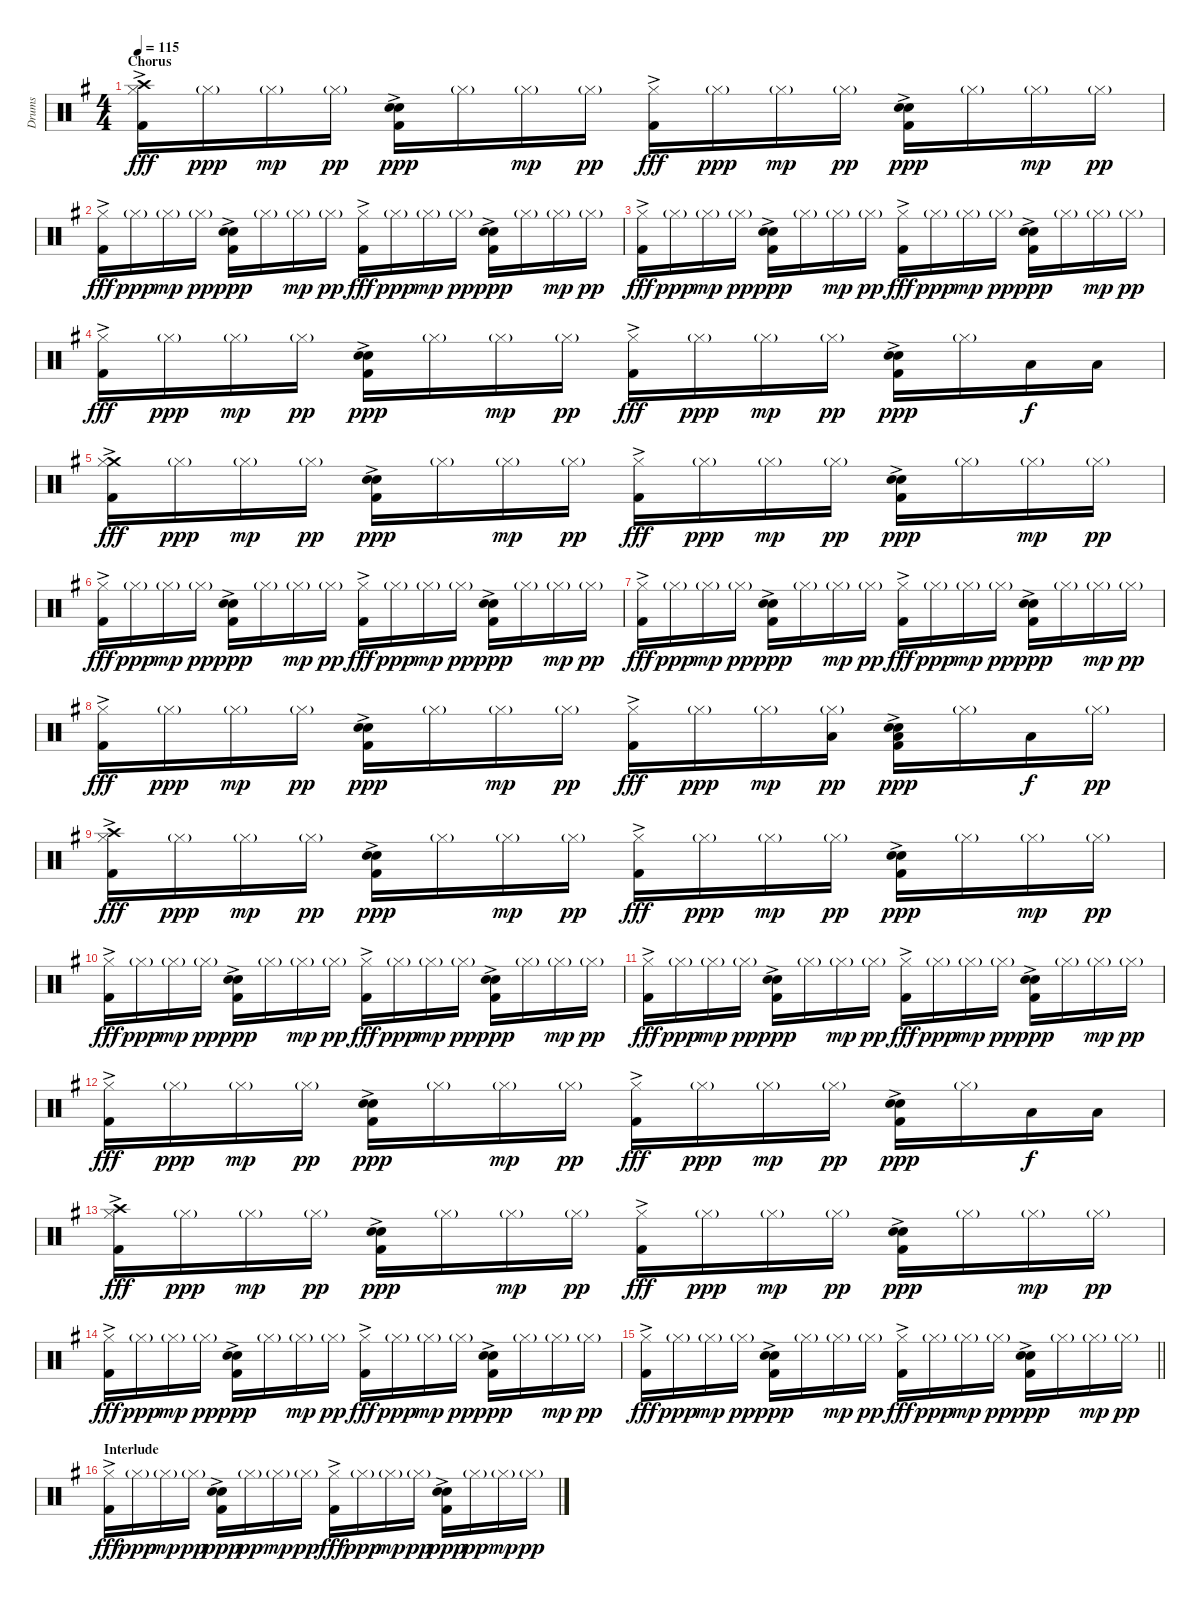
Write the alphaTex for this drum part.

\track ("Drums" "Drums") {instrument percussion}
\staff {score}
\articulation defaults
\ts (4 4)
\section ("" "Chorus")
\tempo 115
\clef neutral
\ks g
("Kick (hit) 2"{ac} "Crash high (hit)" "Hi-Hat (closed)").16{dy fff} "Hi-Hat (closed)"{g}.16{dy ppp} "Hi-Hat (closed)"{g}.16{dy mp} "Hi-Hat (closed)"{g}.16{dy pp} ("Kick (hit) 2"{ac} "Snare (hit) 2"{ac} "Electric Snare (hit)").16{dy ppp} "Hi-Hat (closed)"{g}.16 "Hi-Hat (closed)"{g}.16{dy mp} "Hi-Hat (closed)"{g}.16{dy pp} ("Kick (hit) 2"{ac} "Hi-Hat (closed)").16{dy fff} "Hi-Hat (closed)"{g}.16{dy ppp} "Hi-Hat (closed)"{g}.16{dy mp} "Hi-Hat (closed)"{g}.16{dy pp} ("Kick (hit) 2"{ac} "Snare (hit) 2"{ac} "Electric Snare (hit)").16{dy ppp} "Hi-Hat (closed)"{g}.16 "Hi-Hat (closed)"{g}.16{dy mp} "Hi-Hat (closed)"{g}.16{dy pp} |
("Kick (hit) 2"{ac} "Hi-Hat (closed)").16{dy fff} "Hi-Hat (closed)"{g}.16{dy ppp} "Hi-Hat (closed)"{g}.16{dy mp} "Hi-Hat (closed)"{g}.16{dy pp} ("Kick (hit) 2"{ac} "Snare (hit) 2"{ac} "Electric Snare (hit)").16{dy ppp} "Hi-Hat (closed)"{g}.16 "Hi-Hat (closed)"{g}.16{dy mp} "Hi-Hat (closed)"{g}.16{dy pp} ("Kick (hit) 2"{ac} "Hi-Hat (closed)").16{dy fff} "Hi-Hat (closed)"{g}.16{dy ppp} "Hi-Hat (closed)"{g}.16{dy mp} "Hi-Hat (closed)"{g}.16{dy pp} ("Kick (hit) 2"{ac} "Snare (hit) 2"{ac} "Electric Snare (hit)").16{dy ppp} "Hi-Hat (closed)"{g}.16 "Hi-Hat (closed)"{g}.16{dy mp} "Hi-Hat (closed)"{g}.16{dy pp} |
("Kick (hit) 2"{ac} "Hi-Hat (closed)").16{dy fff} "Hi-Hat (closed)"{g}.16{dy ppp} "Hi-Hat (closed)"{g}.16{dy mp} "Hi-Hat (closed)"{g}.16{dy pp} ("Kick (hit) 2"{ac} "Snare (hit) 2"{ac} "Electric Snare (hit)").16{dy ppp} "Hi-Hat (closed)"{g}.16 "Hi-Hat (closed)"{g}.16{dy mp} "Hi-Hat (closed)"{g}.16{dy pp} ("Kick (hit) 2"{ac} "Hi-Hat (closed)").16{dy fff} "Hi-Hat (closed)"{g}.16{dy ppp} "Hi-Hat (closed)"{g}.16{dy mp} "Hi-Hat (closed)"{g}.16{dy pp} ("Kick (hit) 2"{ac} "Snare (hit) 2"{ac} "Electric Snare (hit)").16{dy ppp} "Hi-Hat (closed)"{g}.16 "Hi-Hat (closed)"{g}.16{dy mp} "Hi-Hat (closed)"{g}.16{dy pp} |
("Kick (hit) 2"{ac} "Hi-Hat (closed)").16{dy fff} "Hi-Hat (closed)"{g}.16{dy ppp} "Hi-Hat (closed)"{g}.16{dy mp} "Hi-Hat (closed)"{g}.16{dy pp} ("Kick (hit) 2"{ac} "Snare (hit) 2"{ac} "Electric Snare (hit)").16{dy ppp} "Hi-Hat (closed)"{g}.16 "Hi-Hat (closed)"{g}.16{dy mp} "Hi-Hat (closed)"{g}.16{dy pp} ("Kick (hit) 2"{ac} "Hi-Hat (closed)").16{dy fff} "Hi-Hat (closed)"{g}.16{dy ppp} "Hi-Hat (closed)"{g}.16{dy mp} "Hi-Hat (closed)"{g}.16{dy pp} ("Kick (hit) 2"{ac} "Snare (hit) 2"{ac} "Electric Snare (hit)").16{dy ppp} "Hi-Hat (closed)"{g}.16 "Low Tom (hit)".16{dy f} "Low Floor Tom (hit)".16 |
("Kick (hit) 2"{ac} "Crash medium (hit)" "Hi-Hat (closed)").16{dy fff} "Hi-Hat (closed)"{g}.16{dy ppp} "Hi-Hat (closed)"{g}.16{dy mp} "Hi-Hat (closed)"{g}.16{dy pp} ("Kick (hit) 2"{ac} "Snare (hit) 2"{ac} "Electric Snare (hit)").16{dy ppp} "Hi-Hat (closed)"{g}.16 "Hi-Hat (closed)"{g}.16{dy mp} "Hi-Hat (closed)"{g}.16{dy pp} ("Kick (hit) 2"{ac} "Hi-Hat (closed)").16{dy fff} "Hi-Hat (closed)"{g}.16{dy ppp} "Hi-Hat (closed)"{g}.16{dy mp} "Hi-Hat (closed)"{g}.16{dy pp} ("Kick (hit) 2"{ac} "Snare (hit) 2"{ac} "Electric Snare (hit)").16{dy ppp} "Hi-Hat (closed)"{g}.16 "Hi-Hat (closed)"{g}.16{dy mp} "Hi-Hat (closed)"{g}.16{dy pp} |
("Kick (hit) 2"{ac} "Hi-Hat (closed)").16{dy fff} "Hi-Hat (closed)"{g}.16{dy ppp} "Hi-Hat (closed)"{g}.16{dy mp} "Hi-Hat (closed)"{g}.16{dy pp} ("Kick (hit) 2"{ac} "Snare (hit) 2"{ac} "Electric Snare (hit)").16{dy ppp} "Hi-Hat (closed)"{g}.16 "Hi-Hat (closed)"{g}.16{dy mp} "Hi-Hat (closed)"{g}.16{dy pp} ("Kick (hit) 2"{ac} "Hi-Hat (closed)").16{dy fff} "Hi-Hat (closed)"{g}.16{dy ppp} "Hi-Hat (closed)"{g}.16{dy mp} "Hi-Hat (closed)"{g}.16{dy pp} ("Kick (hit) 2"{ac} "Snare (hit) 2"{ac} "Electric Snare (hit)").16{dy ppp} "Hi-Hat (closed)"{g}.16 "Hi-Hat (closed)"{g}.16{dy mp} "Hi-Hat (closed)"{g}.16{dy pp} |
("Kick (hit) 2"{ac} "Hi-Hat (closed)").16{dy fff} "Hi-Hat (closed)"{g}.16{dy ppp} "Hi-Hat (closed)"{g}.16{dy mp} "Hi-Hat (closed)"{g}.16{dy pp} ("Kick (hit) 2"{ac} "Snare (hit) 2"{ac} "Electric Snare (hit)").16{dy ppp} "Hi-Hat (closed)"{g}.16 "Hi-Hat (closed)"{g}.16{dy mp} "Hi-Hat (closed)"{g}.16{dy pp} ("Kick (hit) 2"{ac} "Hi-Hat (closed)").16{dy fff} "Hi-Hat (closed)"{g}.16{dy ppp} "Hi-Hat (closed)"{g}.16{dy mp} "Hi-Hat (closed)"{g}.16{dy pp} ("Kick (hit) 2"{ac} "Snare (hit) 2"{ac} "Electric Snare (hit)").16{dy ppp} "Hi-Hat (closed)"{g}.16 "Hi-Hat (closed)"{g}.16{dy mp} "Hi-Hat (closed)"{g}.16{dy pp} |
("Kick (hit) 2"{ac} "Hi-Hat (closed)").16{dy fff} "Hi-Hat (closed)"{g}.16{dy ppp} "Hi-Hat (closed)"{g}.16{dy mp} "Hi-Hat (closed)"{g}.16{dy pp} ("Kick (hit) 2"{ac} "Snare (hit) 2"{ac} "Electric Snare (hit)").16{dy ppp} "Hi-Hat (closed)"{g}.16 "Hi-Hat (closed)"{g}.16{dy mp} "Hi-Hat (closed)"{g}.16{dy pp} ("Kick (hit) 2"{ac} "Hi-Hat (closed)").16{dy fff} "Hi-Hat (closed)"{g}.16{dy ppp} "Hi-Hat (closed)"{g}.16{dy mp} ("Low Tom (hit)" "Hi-Hat (closed)"{g}).16{dy pp} ("Kick (hit) 2"{ac} "Snare (hit) 2"{ac} "Electric Snare (hit)" "Low Tom (hit)").16{dy ppp} "Hi-Hat (closed)"{g}.16 "Low Floor Tom (hit)".16{dy f} "Hi-Hat (closed)"{g}.16{dy pp} |
("Kick (hit) 2"{ac} "Crash high (hit)" "Hi-Hat (closed)").16{dy fff} "Hi-Hat (closed)"{g}.16{dy ppp} "Hi-Hat (closed)"{g}.16{dy mp} "Hi-Hat (closed)"{g}.16{dy pp} ("Kick (hit) 2"{ac} "Snare (hit) 2"{ac} "Electric Snare (hit)").16{dy ppp} "Hi-Hat (closed)"{g}.16 "Hi-Hat (closed)"{g}.16{dy mp} "Hi-Hat (closed)"{g}.16{dy pp} ("Kick (hit) 2"{ac} "Hi-Hat (closed)").16{dy fff} "Hi-Hat (closed)"{g}.16{dy ppp} "Hi-Hat (closed)"{g}.16{dy mp} "Hi-Hat (closed)"{g}.16{dy pp} ("Kick (hit) 2"{ac} "Snare (hit) 2"{ac} "Electric Snare (hit)").16{dy ppp} "Hi-Hat (closed)"{g}.16 "Hi-Hat (closed)"{g}.16{dy mp} "Hi-Hat (closed)"{g}.16{dy pp} |
("Kick (hit) 2"{ac} "Hi-Hat (closed)").16{dy fff} "Hi-Hat (closed)"{g}.16{dy ppp} "Hi-Hat (closed)"{g}.16{dy mp} "Hi-Hat (closed)"{g}.16{dy pp} ("Kick (hit) 2"{ac} "Snare (hit) 2"{ac} "Electric Snare (hit)").16{dy ppp} "Hi-Hat (closed)"{g}.16 "Hi-Hat (closed)"{g}.16{dy mp} "Hi-Hat (closed)"{g}.16{dy pp} ("Kick (hit) 2"{ac} "Hi-Hat (closed)").16{dy fff} "Hi-Hat (closed)"{g}.16{dy ppp} "Hi-Hat (closed)"{g}.16{dy mp} "Hi-Hat (closed)"{g}.16{dy pp} ("Kick (hit) 2"{ac} "Snare (hit) 2"{ac} "Electric Snare (hit)").16{dy ppp} "Hi-Hat (closed)"{g}.16 "Hi-Hat (closed)"{g}.16{dy mp} "Hi-Hat (closed)"{g}.16{dy pp} |
("Kick (hit) 2"{ac} "Hi-Hat (closed)").16{dy fff} "Hi-Hat (closed)"{g}.16{dy ppp} "Hi-Hat (closed)"{g}.16{dy mp} "Hi-Hat (closed)"{g}.16{dy pp} ("Kick (hit) 2"{ac} "Snare (hit) 2"{ac} "Electric Snare (hit)").16{dy ppp} "Hi-Hat (closed)"{g}.16 "Hi-Hat (closed)"{g}.16{dy mp} "Hi-Hat (closed)"{g}.16{dy pp} ("Kick (hit) 2"{ac} "Hi-Hat (closed)").16{dy fff} "Hi-Hat (closed)"{g}.16{dy ppp} "Hi-Hat (closed)"{g}.16{dy mp} "Hi-Hat (closed)"{g}.16{dy pp} ("Kick (hit) 2"{ac} "Snare (hit) 2"{ac} "Electric Snare (hit)").16{dy ppp} "Hi-Hat (closed)"{g}.16 "Hi-Hat (closed)"{g}.16{dy mp} "Hi-Hat (closed)"{g}.16{dy pp} |
("Kick (hit) 2"{ac} "Hi-Hat (closed)").16{dy fff} "Hi-Hat (closed)"{g}.16{dy ppp} "Hi-Hat (closed)"{g}.16{dy mp} "Hi-Hat (closed)"{g}.16{dy pp} ("Kick (hit) 2"{ac} "Snare (hit) 2"{ac} "Electric Snare (hit)").16{dy ppp} "Hi-Hat (closed)"{g}.16 "Hi-Hat (closed)"{g}.16{dy mp} "Hi-Hat (closed)"{g}.16{dy pp} ("Kick (hit) 2"{ac} "Hi-Hat (closed)").16{dy fff} "Hi-Hat (closed)"{g}.16{dy ppp} "Hi-Hat (closed)"{g}.16{dy mp} "Hi-Hat (closed)"{g}.16{dy pp} ("Kick (hit) 2"{ac} "Snare (hit) 2"{ac} "Electric Snare (hit)").16{dy ppp} "Hi-Hat (closed)"{g}.16 "Low Tom (hit)".16{dy f} "Low Floor Tom (hit)".16 |
("Kick (hit) 2"{ac} "Crash high (hit)" "Hi-Hat (closed)").16{dy fff} "Hi-Hat (closed)"{g}.16{dy ppp} "Hi-Hat (closed)"{g}.16{dy mp} "Hi-Hat (closed)"{g}.16{dy pp} ("Kick (hit) 2"{ac} "Snare (hit) 2"{ac} "Electric Snare (hit)").16{dy ppp} "Hi-Hat (closed)"{g}.16 "Hi-Hat (closed)"{g}.16{dy mp} "Hi-Hat (closed)"{g}.16{dy pp} ("Kick (hit) 2"{ac} "Hi-Hat (closed)").16{dy fff} "Hi-Hat (closed)"{g}.16{dy ppp} "Hi-Hat (closed)"{g}.16{dy mp} "Hi-Hat (closed)"{g}.16{dy pp} ("Kick (hit) 2"{ac} "Snare (hit) 2"{ac} "Electric Snare (hit)").16{dy ppp} "Hi-Hat (closed)"{g}.16 "Hi-Hat (closed)"{g}.16{dy mp} "Hi-Hat (closed)"{g}.16{dy pp} |
("Kick (hit) 2"{ac} "Hi-Hat (closed)").16{dy fff} "Hi-Hat (closed)"{g}.16{dy ppp} "Hi-Hat (closed)"{g}.16{dy mp} "Hi-Hat (closed)"{g}.16{dy pp} ("Kick (hit) 2"{ac} "Snare (hit) 2"{ac} "Electric Snare (hit)").16{dy ppp} "Hi-Hat (closed)"{g}.16 "Hi-Hat (closed)"{g}.16{dy mp} "Hi-Hat (closed)"{g}.16{dy pp} ("Kick (hit) 2"{ac} "Hi-Hat (closed)").16{dy fff} "Hi-Hat (closed)"{g}.16{dy ppp} "Hi-Hat (closed)"{g}.16{dy mp} "Hi-Hat (closed)"{g}.16{dy pp} ("Kick (hit) 2"{ac} "Snare (hit) 2"{ac} "Electric Snare (hit)").16{dy ppp} "Hi-Hat (closed)"{g}.16 "Hi-Hat (closed)"{g}.16{dy mp} "Hi-Hat (closed)"{g}.16{dy pp} |
\barLineRight lightlight
("Kick (hit) 2"{ac} "Hi-Hat (closed)").16{dy fff} "Hi-Hat (closed)"{g}.16{dy ppp} "Hi-Hat (closed)"{g}.16{dy mp} "Hi-Hat (closed)"{g}.16{dy pp} ("Kick (hit) 2"{ac} "Snare (hit) 2"{ac} "Electric Snare (hit)").16{dy ppp} "Hi-Hat (closed)"{g}.16 "Hi-Hat (closed)"{g}.16{dy mp} "Hi-Hat (closed)"{g}.16{dy pp} ("Kick (hit) 2"{ac} "Hi-Hat (closed)").16{dy fff} "Hi-Hat (closed)"{g}.16{dy ppp} "Hi-Hat (closed)"{g}.16{dy mp} "Hi-Hat (closed)"{g}.16{dy pp} ("Kick (hit) 2"{ac} "Snare (hit) 2"{ac} "Electric Snare (hit)").16{dy ppp} "Hi-Hat (closed)"{g}.16 "Hi-Hat (closed)"{g}.16{dy mp} "Hi-Hat (closed)"{g}.16{dy pp} |
\section ("" "Interlude")
("Kick (hit) 2"{ac} "Hi-Hat (closed)").16{dy fff} "Hi-Hat (closed)"{g}.16{dy ppp} "Hi-Hat (closed)"{g}.16{dy mp} "Hi-Hat (closed)"{g}.16{dy pp} ("Kick (hit) 2"{ac} "Snare (hit) 2"{ac} "Electric Snare (hit)").16{dy ppp} "Hi-Hat (closed)"{g}.16{dy pp} "Hi-Hat (closed)"{g}.16{dy mp} "Hi-Hat (closed)"{g}.16{dy pp} ("Kick (hit) 2"{ac} "Hi-Hat (closed)").16{dy fff} "Hi-Hat (closed)"{g}.16{dy ppp} "Hi-Hat (closed)"{g}.16{dy mp} "Hi-Hat (closed)"{g}.16{dy pp} ("Kick (hit) 2"{ac} "Snare (hit) 2"{ac} "Electric Snare (hit)").16{dy ppp} "Hi-Hat (closed)"{g}.16{dy pp} "Hi-Hat (closed)"{g}.16{dy mp} "Hi-Hat (closed)"{g}.16{dy pp}
